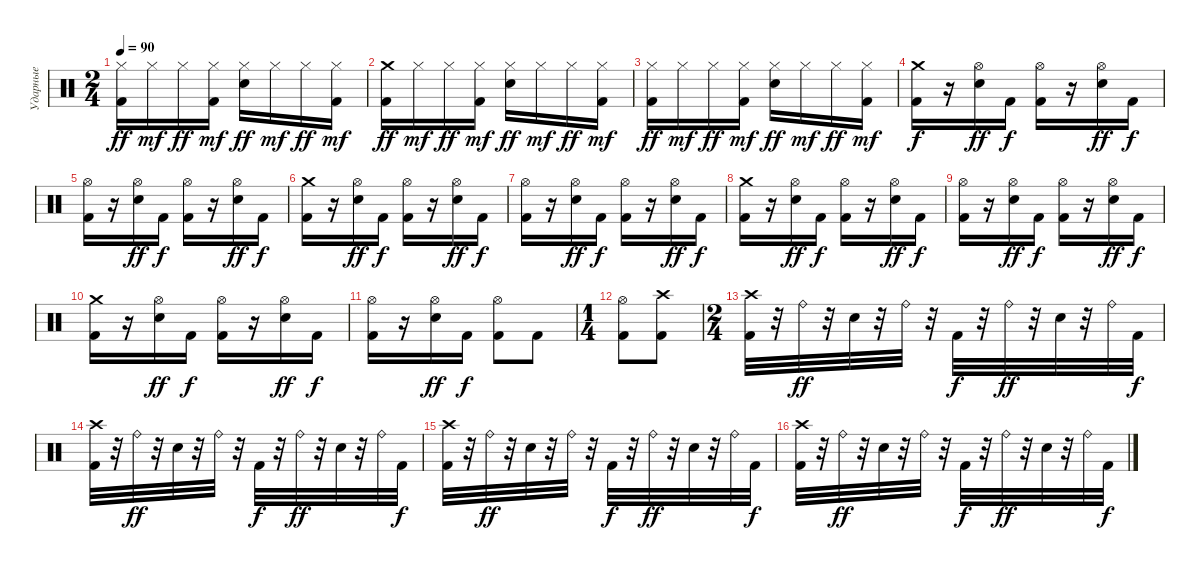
\track ("Ударные" "Ударные") {instrument percussion}
\staff {score}
\articulation defaults
\ts (2 4)
\tempo 90
\clef neutral
\ks c
("Hi-Hat (closed)" "Kick (hit) 2").16{dy ff} "Hi-Hat (closed)".16{dy mf} "Hi-Hat (closed)".16{dy ff} ("Hi-Hat (closed)" "Kick (hit) 2").16{dy mf} ("Hi-Hat (closed)" "Electric Snare (hit)").16{dy ff} "Hi-Hat (closed)".16{dy mf} "Hi-Hat (closed)".16{dy ff} ("Hi-Hat (closed)" "Kick (hit) 2").16{dy mf} |
("Crash medium (hit)" "Kick (hit) 2").16{dy ff} "Hi-Hat (closed)".16{dy mf} "Hi-Hat (closed)".16{dy ff} ("Hi-Hat (closed)" "Kick (hit) 2").16{dy mf} ("Hi-Hat (closed)" "Electric Snare (hit)").16{dy ff} "Hi-Hat (closed)".16{dy mf} "Hi-Hat (closed)".16{dy ff} ("Hi-Hat (closed)" "Kick (hit) 2").16{dy mf} |
("Hi-Hat (closed)" "Kick (hit) 2").16{dy ff} "Hi-Hat (closed)".16{dy mf} "Hi-Hat (closed)".16{dy ff} ("Hi-Hat (closed)" "Kick (hit) 2").16{dy mf} ("Hi-Hat (closed)" "Electric Snare (hit)").16{dy ff} "Hi-Hat (closed)".16{dy mf} "Hi-Hat (closed)".16{dy ff} ("Hi-Hat (closed)" "Kick (hit) 2").16{dy mf} |
("Crash medium (hit)" "Kick (hit) 2").16{dy f} r.16 ("Hi-Hat (open)" "Electric Snare (hit)").16{dy ff} "Kick (hit) 2".16{dy f} ("Hi-Hat (open)" "Kick (hit) 2").16 r.16 ("Hi-Hat (open)" "Electric Snare (hit)").16{dy ff} "Kick (hit) 2".16{dy f} |
("Hi-Hat (open)" "Kick (hit) 2").16 r.16 ("Hi-Hat (open)" "Electric Snare (hit)").16{dy ff} "Kick (hit) 2".16{dy f} ("Hi-Hat (open)" "Kick (hit) 2").16 r.16 ("Hi-Hat (open)" "Electric Snare (hit)").16{dy ff} "Kick (hit) 2".16{dy f} |
("Crash medium (hit)" "Kick (hit) 2").16 r.16 ("Hi-Hat (open)" "Electric Snare (hit)").16{dy ff} "Kick (hit) 2".16{dy f} ("Hi-Hat (open)" "Kick (hit) 2").16 r.16 ("Hi-Hat (open)" "Electric Snare (hit)").16{dy ff} "Kick (hit) 2".16{dy f} |
("Hi-Hat (open)" "Kick (hit) 2").16 r.16 ("Hi-Hat (open)" "Electric Snare (hit)").16{dy ff} "Kick (hit) 2".16{dy f} ("Hi-Hat (open)" "Kick (hit) 2").16 r.16 ("Hi-Hat (open)" "Electric Snare (hit)").16{dy ff} "Kick (hit) 2".16{dy f} |
("Crash medium (hit)" "Kick (hit) 2").16 r.16 ("Hi-Hat (open)" "Electric Snare (hit)").16{dy ff} "Kick (hit) 2".16{dy f} ("Hi-Hat (open)" "Kick (hit) 2").16 r.16 ("Hi-Hat (open)" "Electric Snare (hit)").16{dy ff} "Kick (hit) 2".16{dy f} |
("Hi-Hat (open)" "Kick (hit) 2").16 r.16 ("Hi-Hat (open)" "Electric Snare (hit)").16{dy ff} "Kick (hit) 2".16{dy f} ("Hi-Hat (open)" "Kick (hit) 2").16 r.16 ("Hi-Hat (open)" "Electric Snare (hit)").16{dy ff} "Kick (hit) 2".16{dy f} |
("Crash medium (hit)" "Kick (hit) 2").16 r.16 ("Hi-Hat (open)" "Electric Snare (hit)").16{dy ff} "Kick (hit) 2".16{dy f} ("Hi-Hat (open)" "Kick (hit) 2").16 r.16 ("Hi-Hat (open)" "Electric Snare (hit)").16{dy ff} "Kick (hit) 2".16{dy f} |
("Hi-Hat (open)" "Kick (hit) 2").16 r.16 ("Hi-Hat (open)" "Electric Snare (hit)").16{dy ff} "Kick (hit) 2".16{dy f} ("Hi-Hat (open)" "Kick (hit) 2").8 "Kick (hit) 2".8 |
\ts (1 4)
("Hi-Hat (open)" "Kick (hit) 2").8 ("Crash high (hit)" "Kick (hit) 2").8 |
\ts (2 4)
("Crash high (hit)" "Kick (hit) 2").32 r.32 "Ride (bell)".32{dy ff} r.32 "Electric Snare (hit)".32 r.32 "Ride (bell)".32 r.32 "Kick (hit) 2".32{dy f} r.32 "Ride (bell)".32{dy ff} r.32 "Electric Snare (hit)".32 r.32 "Ride (bell)".32 "Kick (hit) 2".32{dy f} |
("Crash high (hit)" "Kick (hit) 2").32 r.32 "Ride (bell)".32{dy ff} r.32 "Electric Snare (hit)".32 r.32 "Ride (bell)".32 r.32 "Kick (hit) 2".32{dy f} r.32 "Ride (bell)".32{dy ff} r.32 "Electric Snare (hit)".32 r.32 "Ride (bell)".32 "Kick (hit) 2".32{dy f} |
("Crash high (hit)" "Kick (hit) 2").32 r.32 "Ride (bell)".32{dy ff} r.32 "Electric Snare (hit)".32 r.32 "Ride (bell)".32 r.32 "Kick (hit) 2".32{dy f} r.32 "Ride (bell)".32{dy ff} r.32 "Electric Snare (hit)".32 r.32 "Ride (bell)".32 "Kick (hit) 2".32{dy f} |
("Crash high (hit)" "Kick (hit) 2").32 r.32 "Ride (bell)".32{dy ff} r.32 "Electric Snare (hit)".32 r.32 "Ride (bell)".32 r.32 "Kick (hit) 2".32{dy f} r.32 "Ride (bell)".32{dy ff} r.32 "Electric Snare (hit)".32 r.32 "Ride (bell)".32 "Kick (hit) 2".32{dy f}
